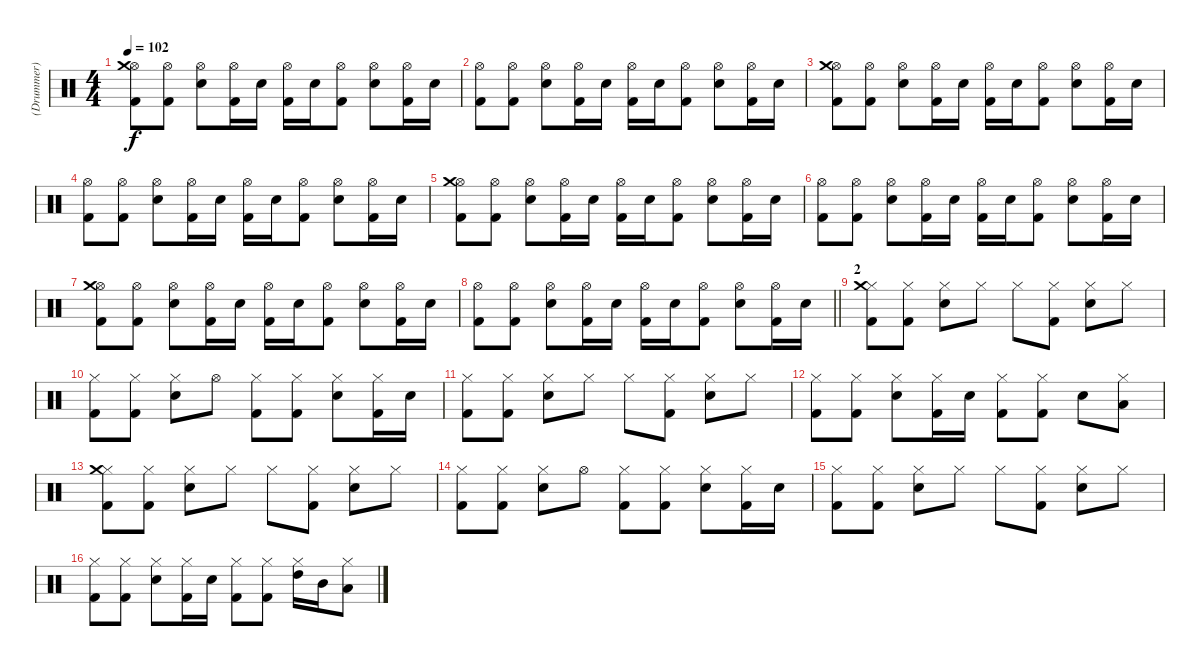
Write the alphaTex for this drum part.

\track ("(Drummer)" "(Drummer)") {solo instrument percussion}
\staff {score}
\articulation defaults
\ts (4 4)
\tempo 102
\clef neutral
\ks c
("Hi-Hat (open)" "Crash medium (hit)" "Kick (hit) 2").8{dy f} ("Hi-Hat (open)" "Kick (hit) 2").8 ("Hi-Hat (open)" "Electric Snare (hit)").8 ("Hi-Hat (open)" "Kick (hit) 2").16 "Electric Snare (hit)".16 ("Hi-Hat (open)" "Kick (hit) 2").16 "Electric Snare (hit)".16 ("Hi-Hat (open)" "Kick (hit) 2").8 ("Hi-Hat (open)" "Electric Snare (hit)").8 ("Hi-Hat (open)" "Kick (hit) 2").16 "Electric Snare (hit)".16 |
("Hi-Hat (open)" "Kick (hit) 2").8 ("Hi-Hat (open)" "Kick (hit) 2").8 ("Hi-Hat (open)" "Electric Snare (hit)").8 ("Hi-Hat (open)" "Kick (hit) 2").16 "Electric Snare (hit)".16 ("Hi-Hat (open)" "Kick (hit) 2").16 "Electric Snare (hit)".16 ("Hi-Hat (open)" "Kick (hit) 2").8 ("Hi-Hat (open)" "Electric Snare (hit)").8 ("Hi-Hat (open)" "Kick (hit) 2").16 "Electric Snare (hit)".16 |
("Hi-Hat (open)" "Crash medium (hit)" "Kick (hit) 2").8 ("Hi-Hat (open)" "Kick (hit) 2").8 ("Hi-Hat (open)" "Electric Snare (hit)").8 ("Hi-Hat (open)" "Kick (hit) 2").16 "Electric Snare (hit)".16 ("Hi-Hat (open)" "Kick (hit) 2").16 "Electric Snare (hit)".16 ("Hi-Hat (open)" "Kick (hit) 2").8 ("Hi-Hat (open)" "Electric Snare (hit)").8 ("Hi-Hat (open)" "Kick (hit) 2").16 "Electric Snare (hit)".16 |
("Hi-Hat (open)" "Kick (hit) 2").8 ("Hi-Hat (open)" "Kick (hit) 2").8 ("Hi-Hat (open)" "Electric Snare (hit)").8 ("Hi-Hat (open)" "Kick (hit) 2").16 "Electric Snare (hit)".16 ("Hi-Hat (open)" "Kick (hit) 2").16 "Electric Snare (hit)".16 ("Hi-Hat (open)" "Kick (hit) 2").8 ("Hi-Hat (open)" "Electric Snare (hit)").8 ("Hi-Hat (open)" "Kick (hit) 2").16 "Electric Snare (hit)".16 |
("Hi-Hat (open)" "Crash medium (hit)" "Kick (hit) 2").8 ("Hi-Hat (open)" "Kick (hit) 2").8 ("Hi-Hat (open)" "Electric Snare (hit)").8 ("Hi-Hat (open)" "Kick (hit) 2").16 "Electric Snare (hit)".16 ("Hi-Hat (open)" "Kick (hit) 2").16 "Electric Snare (hit)".16 ("Hi-Hat (open)" "Kick (hit) 2").8 ("Hi-Hat (open)" "Electric Snare (hit)").8 ("Hi-Hat (open)" "Kick (hit) 2").16 "Electric Snare (hit)".16 |
("Hi-Hat (open)" "Kick (hit) 2").8 ("Hi-Hat (open)" "Kick (hit) 2").8 ("Hi-Hat (open)" "Electric Snare (hit)").8 ("Hi-Hat (open)" "Kick (hit) 2").16 "Electric Snare (hit)".16 ("Hi-Hat (open)" "Kick (hit) 2").16 "Electric Snare (hit)".16 ("Hi-Hat (open)" "Kick (hit) 2").8 ("Hi-Hat (open)" "Electric Snare (hit)").8 ("Hi-Hat (open)" "Kick (hit) 2").16 "Electric Snare (hit)".16 |
("Hi-Hat (open)" "Crash medium (hit)" "Kick (hit) 2").8 ("Hi-Hat (open)" "Kick (hit) 2").8 ("Hi-Hat (open)" "Electric Snare (hit)").8 ("Hi-Hat (open)" "Kick (hit) 2").16 "Electric Snare (hit)".16 ("Hi-Hat (open)" "Kick (hit) 2").16 "Electric Snare (hit)".16 ("Hi-Hat (open)" "Kick (hit) 2").8 ("Hi-Hat (open)" "Electric Snare (hit)").8 ("Hi-Hat (open)" "Kick (hit) 2").16 "Electric Snare (hit)".16 |
\barLineRight lightlight
("Hi-Hat (open)" "Kick (hit) 2").8 ("Hi-Hat (open)" "Kick (hit) 2").8 ("Hi-Hat (open)" "Electric Snare (hit)").8 ("Hi-Hat (open)" "Kick (hit) 2").16 "Electric Snare (hit)".16 ("Hi-Hat (open)" "Kick (hit) 2").16 "Electric Snare (hit)".16 ("Hi-Hat (open)" "Kick (hit) 2").8 ("Hi-Hat (open)" "Electric Snare (hit)").8 ("Hi-Hat (open)" "Kick (hit) 2").16 "Electric Snare (hit)".16 |
\section ("" "2")
("Hi-Hat (closed)" "Crash medium (hit)" "Kick (hit) 2").8 ("Hi-Hat (closed)" "Kick (hit) 2").8 ("Hi-Hat (closed)" "Electric Snare (hit)").8 "Hi-Hat (closed)".8 "Hi-Hat (closed)".8 ("Hi-Hat (closed)" "Kick (hit) 2").8 ("Hi-Hat (closed)" "Electric Snare (hit)").8 "Hi-Hat (closed)".8 |
("Hi-Hat (closed)" "Kick (hit) 2").8 ("Hi-Hat (closed)" "Kick (hit) 2").8 ("Hi-Hat (closed)" "Electric Snare (hit)").8 "Hi-Hat (open)".8 ("Hi-Hat (closed)" "Kick (hit) 2").8 ("Hi-Hat (closed)" "Kick (hit) 2").8 ("Hi-Hat (closed)" "Electric Snare (hit)").8 ("Hi-Hat (closed)" "Kick (hit) 2").16 "Electric Snare (hit)".16 |
("Hi-Hat (closed)" "Kick (hit) 2").8 ("Hi-Hat (closed)" "Kick (hit) 2").8 ("Hi-Hat (closed)" "Electric Snare (hit)").8 "Hi-Hat (closed)".8 "Hi-Hat (closed)".8 ("Hi-Hat (closed)" "Kick (hit) 2").8 ("Hi-Hat (closed)" "Electric Snare (hit)").8 "Hi-Hat (closed)".8 |
("Hi-Hat (closed)" "Kick (hit) 2").8 ("Hi-Hat (closed)" "Kick (hit) 2").8 ("Hi-Hat (closed)" "Electric Snare (hit)").8 ("Hi-Hat (closed)" "Kick (hit) 2").16 "Electric Snare (hit)".16 ("Hi-Hat (closed)" "Kick (hit) 2").8 ("Hi-Hat (closed)" "Kick (hit) 2").8 "Electric Snare (hit)".8 ("Hi-Hat (closed)" "Low Tom (hit)").8 |
("Hi-Hat (closed)" "Crash medium (hit)" "Kick (hit) 2").8 ("Hi-Hat (closed)" "Kick (hit) 2").8 ("Hi-Hat (closed)" "Electric Snare (hit)").8 "Hi-Hat (closed)".8 "Hi-Hat (closed)".8 ("Hi-Hat (closed)" "Kick (hit) 2").8 ("Hi-Hat (closed)" "Electric Snare (hit)").8 "Hi-Hat (closed)".8 |
("Hi-Hat (closed)" "Kick (hit) 2").8 ("Hi-Hat (closed)" "Kick (hit) 2").8 ("Hi-Hat (closed)" "Electric Snare (hit)").8 "Hi-Hat (open)".8 ("Hi-Hat (closed)" "Kick (hit) 2").8 ("Hi-Hat (closed)" "Kick (hit) 2").8 ("Hi-Hat (closed)" "Electric Snare (hit)").8 ("Hi-Hat (closed)" "Kick (hit) 2").16 "Electric Snare (hit)".16 |
("Hi-Hat (closed)" "Kick (hit) 2").8 ("Hi-Hat (closed)" "Kick (hit) 2").8 ("Hi-Hat (closed)" "Electric Snare (hit)").8 "Hi-Hat (closed)".8 "Hi-Hat (closed)".8 ("Hi-Hat (closed)" "Kick (hit) 2").8 ("Hi-Hat (closed)" "Electric Snare (hit)").8 "Hi-Hat (closed)".8 |
("Hi-Hat (closed)" "Kick (hit) 2").8 ("Hi-Hat (closed)" "Kick (hit) 2").8 ("Hi-Hat (closed)" "Electric Snare (hit)").8 ("Hi-Hat (closed)" "Kick (hit) 2").16 "Electric Snare (hit)".16 ("Hi-Hat (closed)" "Kick (hit) 2").8 ("Hi-Hat (closed)" "Kick (hit) 2").8 ("Hi-Hat (closed)" "High Tom (hit)").16 "Mid Tom (hit)".16 ("Hi-Hat (closed)" "Low Tom (hit)").8
